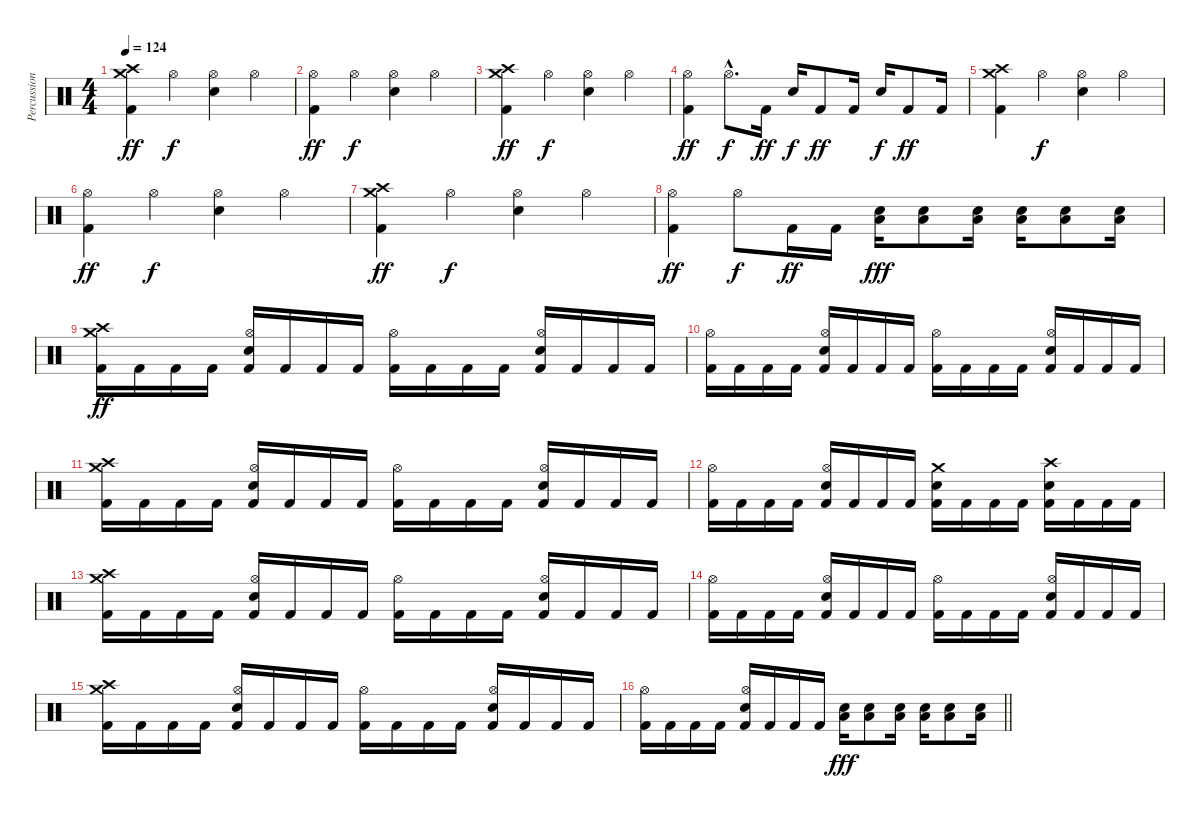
\track ("Percussion" "Percussion") {instrument percussion}
\staff {score}
\articulation defaults
\ts (4 4)
\tempo 124
\clef neutral
\ks c
("Crash medium (hit)" "Crash high (hit)" "Kick (hit) 2").4{dy ff} "Hi-Hat (open)".4{dy f} ("Hi-Hat (open)" "Electric Snare (hit)").4 "Hi-Hat (open)".4 |
("Hi-Hat (open)" "Kick (hit) 2").4{dy ff} "Hi-Hat (open)".4{dy f} ("Hi-Hat (open)" "Electric Snare (hit)").4 "Hi-Hat (open)".4 |
("Crash medium (hit)" "Crash high (hit)" "Kick (hit) 2").4{dy ff} "Hi-Hat (open)".4{dy f} ("Hi-Hat (open)" "Electric Snare (hit)").4 "Hi-Hat (open)".4 |
("Hi-Hat (open)" "Kick (hit) 2").4{dy ff} "Hi-Hat (open)"{hac}.8{d dy f} "Kick (hit) 2".16{dy ff} "Electric Snare (hit)".16{dy f} "Kick (hit) 2".8{dy ff} "Kick (hit) 2".16 "Electric Snare (hit)".16{dy f} "Kick (hit) 2".8{dy ff} "Kick (hit) 2".16 |
("Crash medium (hit)" "Crash high (hit)" "Kick (hit) 2").4 "Hi-Hat (open)".4{dy f} ("Hi-Hat (open)" "Electric Snare (hit)").4 "Hi-Hat (open)".4 |
("Hi-Hat (open)" "Kick (hit) 2").4{dy ff} "Hi-Hat (open)".4{dy f} ("Hi-Hat (open)" "Electric Snare (hit)").4 "Hi-Hat (open)".4 |
("Crash medium (hit)" "Crash high (hit)" "Kick (hit) 2").4{dy ff} "Hi-Hat (open)".4{dy f} ("Hi-Hat (open)" "Electric Snare (hit)").4 "Hi-Hat (open)".4 |
("Hi-Hat (open)" "Kick (hit) 2").4{dy ff} "Hi-Hat (open)".8{dy f} "Kick (hit) 2".16{dy ff} "Kick (hit) 2".16 ("Electric Snare (hit)" "Low Floor Tom (hit)").16{dy fff} ("Electric Snare (hit)" "Low Floor Tom (hit)").8 ("Electric Snare (hit)" "Low Floor Tom (hit)").16 ("Electric Snare (hit)" "Low Floor Tom (hit)").16 ("Electric Snare (hit)" "Low Floor Tom (hit)").8 ("Electric Snare (hit)" "Low Floor Tom (hit)").16 |
("Crash medium (hit)" "Crash high (hit)" "Kick (hit) 2").16{dy ff} "Kick (hit) 2".16 "Kick (hit) 2".16 "Kick (hit) 2".16 ("Hi-Hat (open)" "Electric Snare (hit)" "Kick (hit) 2").16 "Kick (hit) 2".16 "Kick (hit) 2".16 "Kick (hit) 2".16 ("Hi-Hat (open)" "Kick (hit) 2").16 "Kick (hit) 2".16 "Kick (hit) 2".16 "Kick (hit) 2".16 ("Hi-Hat (open)" "Electric Snare (hit)" "Kick (hit) 2").16 "Kick (hit) 2".16 "Kick (hit) 2".16 "Kick (hit) 2".16 |
("Hi-Hat (open)" "Kick (hit) 2").16 "Kick (hit) 2".16 "Kick (hit) 2".16 "Kick (hit) 2".16 ("Hi-Hat (open)" "Electric Snare (hit)" "Kick (hit) 2").16 "Kick (hit) 2".16 "Kick (hit) 2".16 "Kick (hit) 2".16 ("Hi-Hat (open)" "Kick (hit) 2").16 "Kick (hit) 2".16 "Kick (hit) 2".16 "Kick (hit) 2".16 ("Hi-Hat (open)" "Electric Snare (hit)" "Kick (hit) 2").16 "Kick (hit) 2".16 "Kick (hit) 2".16 "Kick (hit) 2".16 |
("Crash medium (hit)" "Crash high (hit)" "Kick (hit) 2").16 "Kick (hit) 2".16 "Kick (hit) 2".16 "Kick (hit) 2".16 ("Hi-Hat (open)" "Electric Snare (hit)" "Kick (hit) 2").16 "Kick (hit) 2".16 "Kick (hit) 2".16 "Kick (hit) 2".16 ("Hi-Hat (open)" "Kick (hit) 2").16 "Kick (hit) 2".16 "Kick (hit) 2".16 "Kick (hit) 2".16 ("Hi-Hat (open)" "Electric Snare (hit)" "Kick (hit) 2").16 "Kick (hit) 2".16 "Kick (hit) 2".16 "Kick (hit) 2".16 |
("Hi-Hat (open)" "Kick (hit) 2").16 "Kick (hit) 2".16 "Kick (hit) 2".16 "Kick (hit) 2".16 ("Hi-Hat (open)" "Electric Snare (hit)" "Kick (hit) 2").16 "Kick (hit) 2".16 "Kick (hit) 2".16 "Kick (hit) 2".16 ("Crash medium (hit)" "Electric Snare (hit)" "Kick (hit) 2").16 "Kick (hit) 2".16 "Kick (hit) 2".16 "Kick (hit) 2".16 ("Crash high (hit)" "Electric Snare (hit)" "Kick (hit) 2").16 "Kick (hit) 2".16 "Kick (hit) 2".16 "Kick (hit) 2".16 |
("Crash medium (hit)" "Crash high (hit)" "Kick (hit) 2").16 "Kick (hit) 2".16 "Kick (hit) 2".16 "Kick (hit) 2".16 ("Hi-Hat (open)" "Electric Snare (hit)" "Kick (hit) 2").16 "Kick (hit) 2".16 "Kick (hit) 2".16 "Kick (hit) 2".16 ("Hi-Hat (open)" "Kick (hit) 2").16 "Kick (hit) 2".16 "Kick (hit) 2".16 "Kick (hit) 2".16 ("Hi-Hat (open)" "Electric Snare (hit)" "Kick (hit) 2").16 "Kick (hit) 2".16 "Kick (hit) 2".16 "Kick (hit) 2".16 |
("Hi-Hat (open)" "Kick (hit) 2").16 "Kick (hit) 2".16 "Kick (hit) 2".16 "Kick (hit) 2".16 ("Hi-Hat (open)" "Electric Snare (hit)" "Kick (hit) 2").16 "Kick (hit) 2".16 "Kick (hit) 2".16 "Kick (hit) 2".16 ("Hi-Hat (open)" "Kick (hit) 2").16 "Kick (hit) 2".16 "Kick (hit) 2".16 "Kick (hit) 2".16 ("Hi-Hat (open)" "Electric Snare (hit)" "Kick (hit) 2").16 "Kick (hit) 2".16 "Kick (hit) 2".16 "Kick (hit) 2".16 |
("Crash medium (hit)" "Crash high (hit)" "Kick (hit) 2").16 "Kick (hit) 2".16 "Kick (hit) 2".16 "Kick (hit) 2".16 ("Hi-Hat (open)" "Electric Snare (hit)" "Kick (hit) 2").16 "Kick (hit) 2".16 "Kick (hit) 2".16 "Kick (hit) 2".16 ("Hi-Hat (open)" "Kick (hit) 2").16 "Kick (hit) 2".16 "Kick (hit) 2".16 "Kick (hit) 2".16 ("Hi-Hat (open)" "Electric Snare (hit)" "Kick (hit) 2").16 "Kick (hit) 2".16 "Kick (hit) 2".16 "Kick (hit) 2".16 |
\barLineRight lightlight
("Hi-Hat (open)" "Kick (hit) 2").16 "Kick (hit) 2".16 "Kick (hit) 2".16 "Kick (hit) 2".16 ("Hi-Hat (open)" "Electric Snare (hit)" "Kick (hit) 2").16 "Kick (hit) 2".16 "Kick (hit) 2".16 "Kick (hit) 2".16 ("Electric Snare (hit)" "Low Floor Tom (hit)").16{dy fff} ("Electric Snare (hit)" "Low Floor Tom (hit)").8 ("Electric Snare (hit)" "Low Floor Tom (hit)").16 ("Electric Snare (hit)" "Low Floor Tom (hit)").16 ("Electric Snare (hit)" "Low Floor Tom (hit)").8 ("Electric Snare (hit)" "Low Floor Tom (hit)").16
